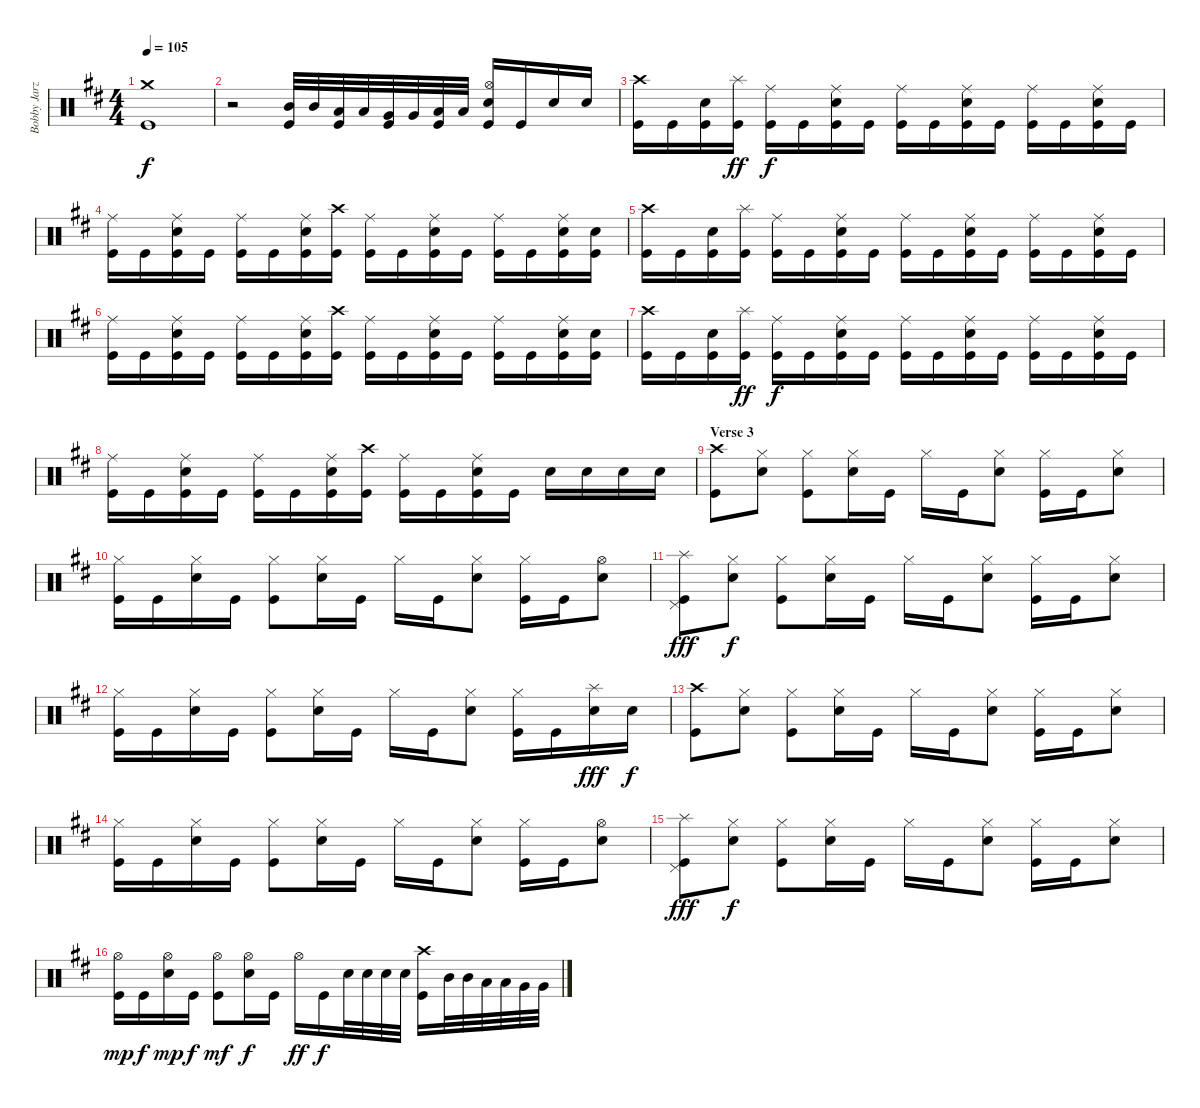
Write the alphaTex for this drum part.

\track ("Bobby Jarzombek" "Bobby Jarz") {instrument percussion}
\staff {score}
\articulation defaults
\ts (4 4)
\tempo 105
\clef neutral
\ks d
("Kick (hit)" "Crash medium (hit)").1{dy f} |
r.2 ("Kick (hit)" "Mid Tom (hit)").32 "Mid Tom (hit)".32 ("Kick (hit)" "Low Tom (hit)").32 "Low Tom (hit)".32 ("Kick (hit)" "Very Low Tom (hit)").32 "Very Low Tom (hit)".32 ("Kick (hit)" "Low Floor Tom (hit)").32 "Low Floor Tom (hit)".32 ("Kick (hit)" "Hi-Hat (open)" "Electric Snare (hit)").16 "Kick (hit)".16 "Electric Snare (hit)".16 "Electric Snare (hit)".16 |
("Crash high (hit)" "Kick (hit)").16 "Kick (hit)".16 ("Electric Snare (hit)" "Kick (hit)").16 ("Splash (hit)" "Kick (hit)").16{dy ff} ("Ride (middle)" "Kick (hit)").16{dy f} "Kick (hit)".16 ("Ride (middle)" "Electric Snare (hit)" "Kick (hit)").16 "Kick (hit)".16 ("Ride (middle)" "Kick (hit)").16 "Kick (hit)".16 ("Ride (middle)" "Electric Snare (hit)" "Kick (hit)").16 "Kick (hit)".16 ("Ride (middle)" "Kick (hit)").16 "Kick (hit)".16 ("Ride (middle)" "Electric Snare (hit)" "Kick (hit)").16 "Kick (hit)".16 |
("Ride (middle)" "Kick (hit)").16 "Kick (hit)".16 ("Ride (middle)" "Electric Snare (hit)" "Kick (hit)").16 "Kick (hit)".16 ("Ride (middle)" "Kick (hit)").16 "Kick (hit)".16 ("Ride (middle)" "Electric Snare (hit)" "Kick (hit)").16 ("Crash high (hit)" "Kick (hit)").16 ("Ride (middle)" "Kick (hit)").16 "Kick (hit)".16 ("Ride (middle)" "Electric Snare (hit)" "Kick (hit)").16 "Kick (hit)".16 ("Ride (middle)" "Kick (hit)").16 "Kick (hit)".16 ("Ride (middle)" "Electric Snare (hit)" "Kick (hit)").16 ("Electric Snare (hit)" "Kick (hit)").16 |
("Crash high (hit)" "Kick (hit)").16 "Kick (hit)".16 ("Electric Snare (hit)" "Kick (hit)").16 ("Splash (hit)" "Kick (hit)").16 ("Ride (middle)" "Kick (hit)").16 "Kick (hit)".16 ("Ride (middle)" "Electric Snare (hit)" "Kick (hit)").16 "Kick (hit)".16 ("Ride (middle)" "Kick (hit)").16 "Kick (hit)".16 ("Ride (middle)" "Electric Snare (hit)" "Kick (hit)").16 "Kick (hit)".16 ("Ride (middle)" "Kick (hit)").16 "Kick (hit)".16 ("Ride (middle)" "Electric Snare (hit)" "Kick (hit)").16 "Kick (hit)".16 |
("Ride (middle)" "Kick (hit)").16 "Kick (hit)".16 ("Ride (middle)" "Electric Snare (hit)" "Kick (hit)").16 "Kick (hit)".16 ("Ride (middle)" "Kick (hit)").16 "Kick (hit)".16 ("Ride (middle)" "Electric Snare (hit)" "Kick (hit)").16 ("Crash high (hit)" "Kick (hit)").16 ("Ride (middle)" "Kick (hit)").16 "Kick (hit)".16 ("Ride (middle)" "Electric Snare (hit)" "Kick (hit)").16 "Kick (hit)".16 ("Ride (middle)" "Kick (hit)").16 "Kick (hit)".16 ("Ride (middle)" "Electric Snare (hit)" "Kick (hit)").16 ("Electric Snare (hit)" "Kick (hit)").16 |
("Crash high (hit)" "Kick (hit)").16 "Kick (hit)".16 ("Electric Snare (hit)" "Kick (hit)").16 ("Splash (hit)" "Kick (hit)").16{dy ff} ("Ride (middle)" "Kick (hit)").16{dy f} "Kick (hit)".16 ("Ride (middle)" "Electric Snare (hit)" "Kick (hit)").16 "Kick (hit)".16 ("Ride (middle)" "Kick (hit)").16 "Kick (hit)".16 ("Ride (middle)" "Electric Snare (hit)" "Kick (hit)").16 "Kick (hit)".16 ("Ride (middle)" "Kick (hit)").16 "Kick (hit)".16 ("Ride (middle)" "Electric Snare (hit)" "Kick (hit)").16 "Kick (hit)".16 |
("Ride (middle)" "Kick (hit)").16 "Kick (hit)".16 ("Ride (middle)" "Electric Snare (hit)" "Kick (hit)").16 "Kick (hit)".16 ("Ride (middle)" "Kick (hit)").16 "Kick (hit)".16 ("Ride (middle)" "Electric Snare (hit)" "Kick (hit)").16 ("Crash high (hit)" "Kick (hit)").16 ("Ride (middle)" "Kick (hit)").16 "Kick (hit)".16 ("Ride (middle)" "Electric Snare (hit)" "Kick (hit)").16 "Kick (hit)".16 "Electric Snare (hit)".16 "Electric Snare (hit)".16 "Electric Snare (hit)".16 "Electric Snare (hit)".16 |
\section ("" "Verse 3")
("Crash high (hit)" "Kick (hit)").8 ("Hi-Hat (closed)" "Electric Snare (hit)").8 ("Hi-Hat (closed)" "Kick (hit)").8 ("Hi-Hat (closed)" "Electric Snare (hit)").16 "Kick (hit)".16 "Hi-Hat (closed)".16 "Kick (hit)".16 ("Hi-Hat (closed)" "Electric Snare (hit)").8 ("Hi-Hat (closed)" "Kick (hit)").16 "Kick (hit)".16 ("Hi-Hat (closed)" "Electric Snare (hit)").8 |
("Hi-Hat (closed)" "Kick (hit)").16 "Kick (hit)".16 ("Hi-Hat (closed)" "Electric Snare (hit)").16 "Kick (hit)".16 ("Hi-Hat (closed)" "Kick (hit)").8 ("Hi-Hat (closed)" "Electric Snare (hit)").16 "Kick (hit)".16 "Hi-Hat (closed)".16 "Kick (hit)".16 ("Hi-Hat (closed)" "Electric Snare (hit)").8 ("Hi-Hat (closed)" "Kick (hit)").16 "Kick (hit)".16 ("Hi-Hat (open)" "Electric Snare (hit)").8 |
("Splash (hit)" "Pedal Hi-Hat (hit)" "Kick (hit)").8{dy fff} ("Hi-Hat (closed)" "Electric Snare (hit)").8{dy f} ("Hi-Hat (closed)" "Kick (hit)").8 ("Hi-Hat (closed)" "Electric Snare (hit)").16 "Kick (hit)".16 "Hi-Hat (closed)".16 "Kick (hit)".16 ("Hi-Hat (closed)" "Electric Snare (hit)").8 ("Hi-Hat (closed)" "Kick (hit)").16 "Kick (hit)".16 ("Hi-Hat (closed)" "Electric Snare (hit)").8 |
("Hi-Hat (closed)" "Kick (hit)").16 "Kick (hit)".16 ("Hi-Hat (closed)" "Electric Snare (hit)").16 "Kick (hit)".16 ("Hi-Hat (closed)" "Kick (hit)").8 ("Hi-Hat (closed)" "Electric Snare (hit)").16 "Kick (hit)".16 "Hi-Hat (closed)".16 "Kick (hit)".16 ("Hi-Hat (closed)" "Electric Snare (hit)").8 ("Hi-Hat (closed)" "Kick (hit)").16 "Kick (hit)".16 ("Splash (hit)" "Electric Snare (hit)").16{dy fff} "Electric Snare (hit)".16{dy f} |
("Crash high (hit)" "Kick (hit)").8 ("Hi-Hat (closed)" "Electric Snare (hit)").8 ("Hi-Hat (closed)" "Kick (hit)").8 ("Hi-Hat (closed)" "Electric Snare (hit)").16 "Kick (hit)".16 "Hi-Hat (closed)".16 "Kick (hit)".16 ("Hi-Hat (closed)" "Electric Snare (hit)").8 ("Hi-Hat (closed)" "Kick (hit)").16 "Kick (hit)".16 ("Hi-Hat (closed)" "Electric Snare (hit)").8 |
("Hi-Hat (closed)" "Kick (hit)").16 "Kick (hit)".16 ("Hi-Hat (closed)" "Electric Snare (hit)").16 "Kick (hit)".16 ("Hi-Hat (closed)" "Kick (hit)").8 ("Hi-Hat (closed)" "Electric Snare (hit)").16 "Kick (hit)".16 "Hi-Hat (closed)".16 "Kick (hit)".16 ("Hi-Hat (closed)" "Electric Snare (hit)").8 ("Hi-Hat (closed)" "Kick (hit)").16 "Kick (hit)".16 ("Hi-Hat (open)" "Electric Snare (hit)").8 |
("Splash (hit)" "Pedal Hi-Hat (hit)" "Kick (hit)").8{dy fff} ("Hi-Hat (closed)" "Electric Snare (hit)").8{dy f} ("Hi-Hat (closed)" "Kick (hit)").8 ("Hi-Hat (closed)" "Electric Snare (hit)").16 "Kick (hit)".16 "Hi-Hat (closed)".16 "Kick (hit)".16 ("Hi-Hat (closed)" "Electric Snare (hit)").8 ("Hi-Hat (closed)" "Kick (hit)").16 "Kick (hit)".16 ("Hi-Hat (closed)" "Electric Snare (hit)").8 |
("Hi-Hat (open)" "Kick (hit)").16{dy mp} "Kick (hit)".16{dy f} ("Hi-Hat (open)" "Electric Snare (hit)").16{dy mp} "Kick (hit)".16{dy f} ("Hi-Hat (open)" "Kick (hit)").8{dy mf} ("Hi-Hat (open)" "Electric Snare (hit)").16{dy f} "Kick (hit)".16 "Hi-Hat (open)".16{dy ff} "Kick (hit)".16{dy f} "Electric Snare (hit)".32 "Electric Snare (hit)".32 "Electric Snare (hit)".32 "Electric Snare (hit)".32 ("Crash high (hit)" "Kick (hit)").16 "Mid Tom (hit)".32 "Mid Tom (hit)".32 "Low Tom (hit)".32 "Low Tom (hit)".32 "Very Low Tom (hit)".32 "Very Low Tom (hit)".32
